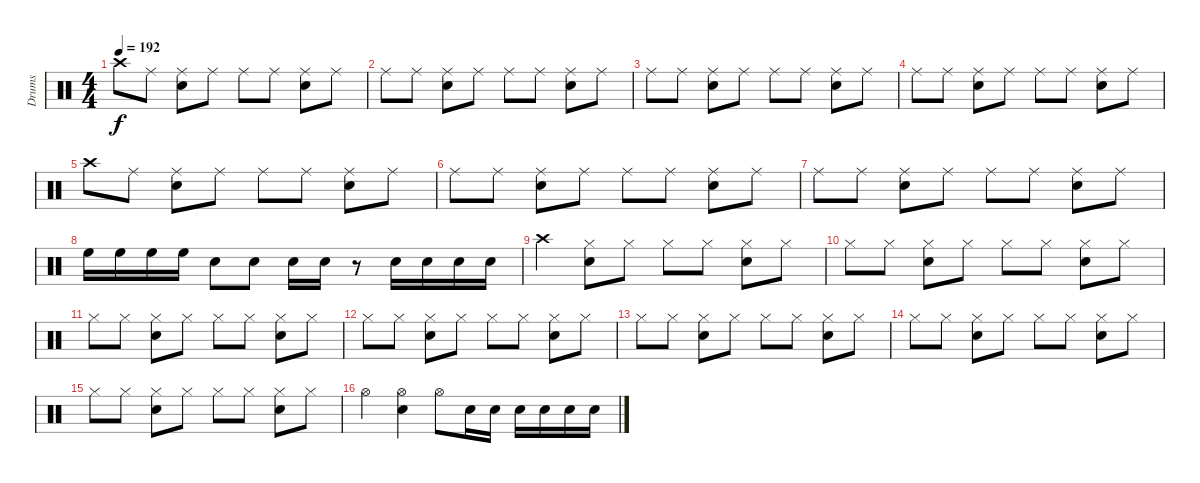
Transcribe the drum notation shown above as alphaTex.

\track ("Drums" "Drums") {instrument percussion}
\staff {score}
\articulation defaults
\ts (4 4)
\tempo 192
\clef neutral
\ks c "Crash high (hit)".8{dy f} "Ride (middle)".8
("Ride (middle)" "Snare (hit) 2").8 "Ride (middle)".8 "Ride (middle)".8 "Ride (middle)".8 ("Ride (middle)" "Snare (hit) 2").8 "Ride (middle)".8 |
"Ride (middle)".8 "Ride (middle)".8 ("Ride (middle)" "Snare (hit) 2").8 "Ride (middle)".8 "Ride (middle)".8 "Ride (middle)".8 ("Ride (middle)" "Snare (hit) 2").8 "Ride (middle)".8 |
"Ride (middle)".8 "Ride (middle)".8 ("Ride (middle)" "Snare (hit) 2").8 "Ride (middle)".8 "Ride (middle)".8 "Ride (middle)".8 ("Ride (middle)" "Snare (hit) 2").8 "Ride (middle)".8 |
"Ride (middle)".8 "Ride (middle)".8 ("Ride (middle)" "Snare (hit) 2").8 "Ride (middle)".8 "Ride (middle)".8 "Ride (middle)".8 ("Ride (middle)" "Snare (hit) 2").8 "Ride (middle)".8 |
"Crash high (hit)".8 "Ride (middle)".8 ("Ride (middle)" "Snare (hit) 2").8 "Ride (middle)".8 "Ride (middle)".8 "Ride (middle)".8 ("Ride (middle)" "Snare (hit) 2").8 "Ride (middle)".8 |
"Ride (middle)".8 "Ride (middle)".8 ("Ride (middle)" "Snare (hit) 2").8 "Ride (middle)".8 "Ride (middle)".8 "Ride (middle)".8 ("Ride (middle)" "Snare (hit) 2").8 "Ride (middle)".8 |
"Ride (middle)".8 "Ride (middle)".8 ("Ride (middle)" "Snare (hit) 2").8 "Ride (middle)".8 "Ride (middle)".8 "Ride (middle)".8 ("Ride (middle)" "Snare (hit) 2").8 "Ride (middle)".8 |
"High Floor Tom (hit)".16 "High Floor Tom (hit)".16 "High Floor Tom (hit)".16 "High Floor Tom (hit)".16 "Snare (hit) 2".8 "Snare (hit) 2".8 "Snare (hit) 2".16 "Snare (hit) 2".16 r.8 "Snare (hit) 2".16 "Snare (hit) 2".16 "Snare (hit) 2".16 "Snare (hit) 2".16 |
"Crash high (hit)".4 ("Hi-Hat (closed)" "Snare (hit) 2").8 "Hi-Hat (closed)".8 "Hi-Hat (closed)".8 "Hi-Hat (closed)".8 ("Hi-Hat (closed)" "Snare (hit) 2").8 "Hi-Hat (closed)".8 |
"Hi-Hat (closed)".8 "Hi-Hat (closed)".8 ("Hi-Hat (closed)" "Snare (hit) 2").8 "Hi-Hat (closed)".8 "Hi-Hat (closed)".8 "Hi-Hat (closed)".8 ("Hi-Hat (closed)" "Snare (hit) 2").8 "Hi-Hat (closed)".8 |
"Hi-Hat (closed)".8 "Hi-Hat (closed)".8 ("Hi-Hat (closed)" "Snare (hit) 2").8 "Hi-Hat (closed)".8 "Hi-Hat (closed)".8 "Hi-Hat (closed)".8 ("Hi-Hat (closed)" "Snare (hit) 2").8 "Hi-Hat (closed)".8 |
"Hi-Hat (closed)".8 "Hi-Hat (closed)".8 ("Hi-Hat (closed)" "Snare (hit) 2").8 "Hi-Hat (closed)".8 "Hi-Hat (closed)".8 "Hi-Hat (closed)".8 ("Hi-Hat (closed)" "Snare (hit) 2").8 "Hi-Hat (closed)".8 |
"Hi-Hat (closed)".8 "Hi-Hat (closed)".8 ("Hi-Hat (closed)" "Snare (hit) 2").8 "Hi-Hat (closed)".8 "Hi-Hat (closed)".8 "Hi-Hat (closed)".8 ("Hi-Hat (closed)" "Snare (hit) 2").8 "Hi-Hat (closed)".8 |
"Hi-Hat (closed)".8 "Hi-Hat (closed)".8 ("Hi-Hat (closed)" "Snare (hit) 2").8 "Hi-Hat (closed)".8 "Hi-Hat (closed)".8 "Hi-Hat (closed)".8 ("Hi-Hat (closed)" "Snare (hit) 2").8 "Hi-Hat (closed)".8 |
"Hi-Hat (closed)".8 "Hi-Hat (closed)".8 ("Hi-Hat (closed)" "Snare (hit) 2").8 "Hi-Hat (closed)".8 "Hi-Hat (closed)".8 "Hi-Hat (closed)".8 ("Hi-Hat (closed)" "Snare (hit) 2").8 "Hi-Hat (closed)".8 |
"Hi-Hat (open)".4 ("Hi-Hat (open)" "Snare (hit) 2").4 "Hi-Hat (open)".8 "Snare (hit) 2".16 "Snare (hit) 2".16 "Snare (hit) 2".16 "Snare (hit) 2".16 "Snare (hit) 2".16 "Snare (hit) 2".16
